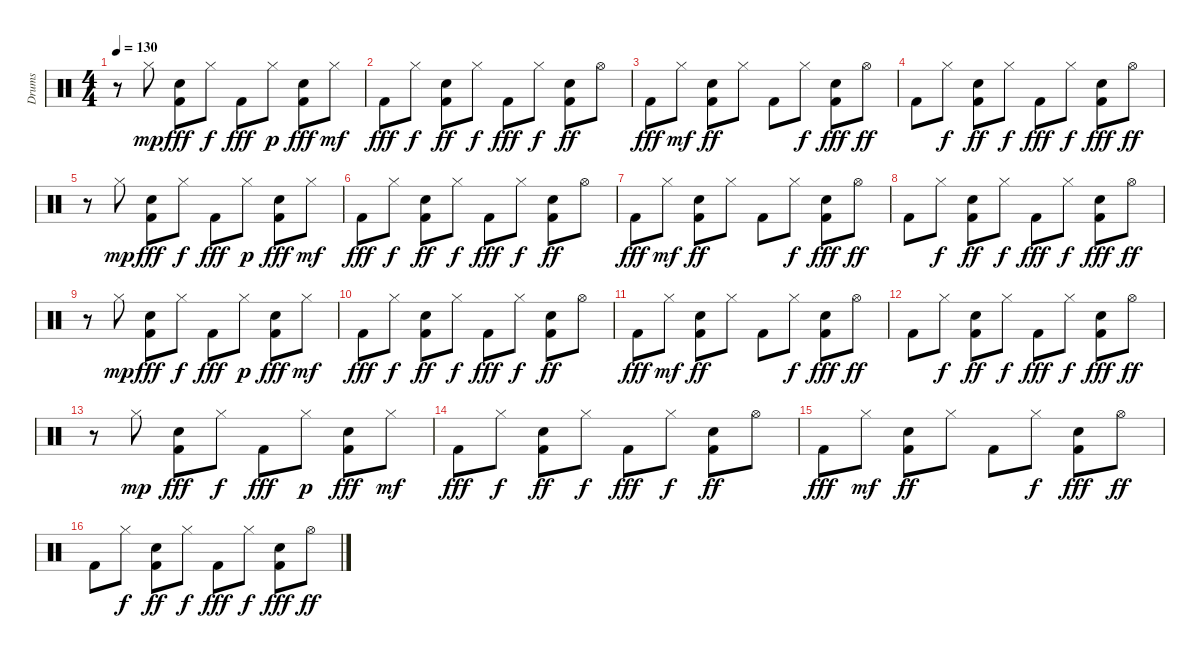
\track ("Drums" "Drums") {instrument percussion}
\staff {score}
\articulation defaults
\ts (4 4)
\tempo 130
\clef neutral
\ks c
r.8{dy ff} "Hi-Hat (closed)".8{dy mp} ("Kick (hit) 2" "Snare (hit) 2").8{dy fff} "Hi-Hat (closed)".8{dy f} "Kick (hit) 2".8{dy fff} "Hi-Hat (closed)".8{dy p} ("Kick (hit) 2" "Snare (hit) 2").8{dy fff} "Hi-Hat (closed)".8{dy mf} |
"Kick (hit) 2".8{dy fff} "Hi-Hat (closed)".8{dy f} ("Kick (hit) 2" "Snare (hit) 2").8{dy ff} "Hi-Hat (closed)".8{dy f} "Kick (hit) 2".8{dy fff} "Hi-Hat (closed)".8{dy f} ("Kick (hit) 2" "Snare (hit) 2").8{dy ff} "Hi-Hat (open)".8 |
"Kick (hit) 2".8{dy fff} "Hi-Hat (closed)".8{dy mf} ("Kick (hit) 2" "Snare (hit) 2").8{dy ff} "Hi-Hat (closed)".8 "Kick (hit) 2".8 "Hi-Hat (closed)".8{dy f} ("Kick (hit) 2" "Snare (hit) 2").8{dy fff} "Hi-Hat (open)".8{dy ff} |
"Kick (hit) 2".8 "Hi-Hat (closed)".8{dy f} ("Kick (hit) 2" "Snare (hit) 2").8{dy ff} "Hi-Hat (closed)".8{dy f} "Kick (hit) 2".8{dy fff} "Hi-Hat (closed)".8{dy f} ("Kick (hit) 2" "Snare (hit) 2").8{dy fff} "Hi-Hat (open)".8{dy ff} |
r.8 "Hi-Hat (closed)".8{dy mp} ("Kick (hit) 2" "Snare (hit) 2").8{dy fff} "Hi-Hat (closed)".8{dy f} "Kick (hit) 2".8{dy fff} "Hi-Hat (closed)".8{dy p} ("Kick (hit) 2" "Snare (hit) 2").8{dy fff} "Hi-Hat (closed)".8{dy mf} |
"Kick (hit) 2".8{dy fff} "Hi-Hat (closed)".8{dy f} ("Kick (hit) 2" "Snare (hit) 2").8{dy ff} "Hi-Hat (closed)".8{dy f} "Kick (hit) 2".8{dy fff} "Hi-Hat (closed)".8{dy f} ("Kick (hit) 2" "Snare (hit) 2").8{dy ff} "Hi-Hat (open)".8 |
"Kick (hit) 2".8{dy fff} "Hi-Hat (closed)".8{dy mf} ("Kick (hit) 2" "Snare (hit) 2").8{dy ff} "Hi-Hat (closed)".8 "Kick (hit) 2".8 "Hi-Hat (closed)".8{dy f} ("Kick (hit) 2" "Snare (hit) 2").8{dy fff} "Hi-Hat (open)".8{dy ff} |
"Kick (hit) 2".8 "Hi-Hat (closed)".8{dy f} ("Kick (hit) 2" "Snare (hit) 2").8{dy ff} "Hi-Hat (closed)".8{dy f} "Kick (hit) 2".8{dy fff} "Hi-Hat (closed)".8{dy f} ("Kick (hit) 2" "Snare (hit) 2").8{dy fff} "Hi-Hat (open)".8{dy ff} |
r.8 "Hi-Hat (closed)".8{dy mp} ("Kick (hit) 2" "Snare (hit) 2").8{dy fff} "Hi-Hat (closed)".8{dy f} "Kick (hit) 2".8{dy fff} "Hi-Hat (closed)".8{dy p} ("Kick (hit) 2" "Snare (hit) 2").8{dy fff} "Hi-Hat (closed)".8{dy mf} |
"Kick (hit) 2".8{dy fff} "Hi-Hat (closed)".8{dy f} ("Kick (hit) 2" "Snare (hit) 2").8{dy ff} "Hi-Hat (closed)".8{dy f} "Kick (hit) 2".8{dy fff} "Hi-Hat (closed)".8{dy f} ("Kick (hit) 2" "Snare (hit) 2").8{dy ff} "Hi-Hat (open)".8 |
"Kick (hit) 2".8{dy fff} "Hi-Hat (closed)".8{dy mf} ("Kick (hit) 2" "Snare (hit) 2").8{dy ff} "Hi-Hat (closed)".8 "Kick (hit) 2".8 "Hi-Hat (closed)".8{dy f} ("Kick (hit) 2" "Snare (hit) 2").8{dy fff} "Hi-Hat (open)".8{dy ff} |
"Kick (hit) 2".8 "Hi-Hat (closed)".8{dy f} ("Kick (hit) 2" "Snare (hit) 2").8{dy ff} "Hi-Hat (closed)".8{dy f} "Kick (hit) 2".8{dy fff} "Hi-Hat (closed)".8{dy f} ("Kick (hit) 2" "Snare (hit) 2").8{dy fff} "Hi-Hat (open)".8{dy ff} |
r.8 "Hi-Hat (closed)".8{dy mp} ("Kick (hit) 2" "Snare (hit) 2").8{dy fff} "Hi-Hat (closed)".8{dy f} "Kick (hit) 2".8{dy fff} "Hi-Hat (closed)".8{dy p} ("Kick (hit) 2" "Snare (hit) 2").8{dy fff} "Hi-Hat (closed)".8{dy mf} |
"Kick (hit) 2".8{dy fff} "Hi-Hat (closed)".8{dy f} ("Kick (hit) 2" "Snare (hit) 2").8{dy ff} "Hi-Hat (closed)".8{dy f} "Kick (hit) 2".8{dy fff} "Hi-Hat (closed)".8{dy f} ("Kick (hit) 2" "Snare (hit) 2").8{dy ff} "Hi-Hat (open)".8 |
"Kick (hit) 2".8{dy fff} "Hi-Hat (closed)".8{dy mf} ("Kick (hit) 2" "Snare (hit) 2").8{dy ff} "Hi-Hat (closed)".8 "Kick (hit) 2".8 "Hi-Hat (closed)".8{dy f} ("Kick (hit) 2" "Snare (hit) 2").8{dy fff} "Hi-Hat (open)".8{dy ff} |
"Kick (hit) 2".8 "Hi-Hat (closed)".8{dy f} ("Kick (hit) 2" "Snare (hit) 2").8{dy ff} "Hi-Hat (closed)".8{dy f} "Kick (hit) 2".8{dy fff} "Hi-Hat (closed)".8{dy f} ("Kick (hit) 2" "Snare (hit) 2").8{dy fff} "Hi-Hat (open)".8{dy ff}
